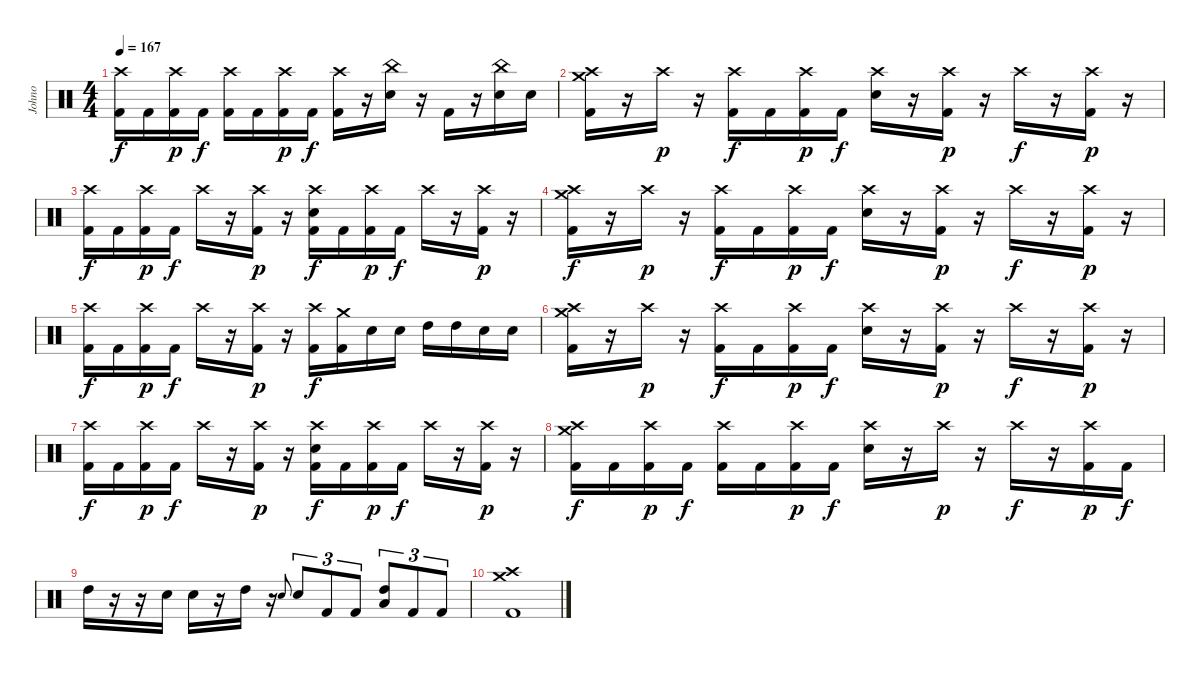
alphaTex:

\track ("Johno" "Johno") {instrument percussion}
\staff {score}
\articulation defaults
\ts (4 4)
\tempo 167
\clef neutral
\ks c
("Crash high (hit)" "Kick (hit) 2").16{dy f} "Kick (hit) 2".16 ("Crash high (hit)" "Kick (hit) 2").16{dy p} "Kick (hit) 2".16{dy f} ("Crash high (hit)" "Kick (hit) 2").16 "Kick (hit) 2".16 ("Crash high (hit)" "Kick (hit) 2").16{dy p} "Kick (hit) 2".16{dy f} ("Crash high (hit)" "Kick (hit) 2").16 r.16 ("China (hit)" "Electric Snare (hit)").16 r.16 "Kick (hit) 2".16 r.16 ("China (hit)" "Electric Snare (hit)").16 "Electric Snare (hit)".16 |
("Crash medium (hit)" "Crash high (hit)" "Kick (hit) 2").16 r.16 "Crash high (hit)".16{dy p} r.16 ("Crash high (hit)" "Kick (hit) 2").16{dy f} "Kick (hit) 2".16 ("Crash high (hit)" "Kick (hit) 2").16{dy p} "Kick (hit) 2".16{dy f} ("Crash high (hit)" "Electric Snare (hit)").16 r.16 ("Crash high (hit)" "Kick (hit) 2").16{dy p} r.16 "Crash high (hit)".16{dy f} r.16 ("Crash high (hit)" "Kick (hit) 2").16{dy p} r.16 |
("Crash high (hit)" "Kick (hit) 2").16{dy f} "Kick (hit) 2".16 ("Crash high (hit)" "Kick (hit) 2").16{dy p} "Kick (hit) 2".16{dy f} "Crash high (hit)".16 r.16 ("Crash high (hit)" "Kick (hit) 2").16{dy p} r.16 ("Crash high (hit)" "Electric Snare (hit)" "Kick (hit) 2").16{dy f} "Kick (hit) 2".16 ("Crash high (hit)" "Kick (hit) 2").16{dy p} "Kick (hit) 2".16{dy f} "Crash high (hit)".16 r.16 ("Crash high (hit)" "Kick (hit) 2").16{dy p} r.16 |
("Crash medium (hit)" "Crash high (hit)" "Kick (hit) 2").16{dy f} r.16 "Crash high (hit)".16{dy p} r.16 ("Crash high (hit)" "Kick (hit) 2").16{dy f} "Kick (hit) 2".16 ("Crash high (hit)" "Kick (hit) 2").16{dy p} "Kick (hit) 2".16{dy f} ("Crash high (hit)" "Electric Snare (hit)").16 r.16 ("Crash high (hit)" "Kick (hit) 2").16{dy p} r.16 "Crash high (hit)".16{dy f} r.16 ("Crash high (hit)" "Kick (hit) 2").16{dy p} r.16 |
("Crash high (hit)" "Kick (hit) 2").16{dy f} "Kick (hit) 2".16 ("Crash high (hit)" "Kick (hit) 2").16{dy p} "Kick (hit) 2".16{dy f} "Crash high (hit)".16 r.16 ("Crash high (hit)" "Kick (hit) 2").16{dy p} r.16 ("Crash high (hit)" "Kick (hit) 2").16{dy f} ("Crash medium (hit)" "Kick (hit) 2").16 "Electric Snare (hit)".16 "Electric Snare (hit)".16 "High Tom (hit)".16 "High Tom (hit)".16 "Electric Snare (hit)".16 "Electric Snare (hit)".16 |
("Crash medium (hit)" "Crash high (hit)" "Kick (hit) 2").16 r.16 "Crash high (hit)".16{dy p} r.16 ("Crash high (hit)" "Kick (hit) 2").16{dy f} "Kick (hit) 2".16 ("Crash high (hit)" "Kick (hit) 2").16{dy p} "Kick (hit) 2".16{dy f} ("Crash high (hit)" "Electric Snare (hit)").16 r.16 ("Crash high (hit)" "Kick (hit) 2").16{dy p} r.16 "Crash high (hit)".16{dy f} r.16 ("Crash high (hit)" "Kick (hit) 2").16{dy p} r.16 |
("Crash high (hit)" "Kick (hit) 2").16{dy f} "Kick (hit) 2".16 ("Crash high (hit)" "Kick (hit) 2").16{dy p} "Kick (hit) 2".16{dy f} "Crash high (hit)".16 r.16 ("Crash high (hit)" "Kick (hit) 2").16{dy p} r.16 ("Crash high (hit)" "Electric Snare (hit)" "Kick (hit) 2").16{dy f} "Kick (hit) 2".16 ("Crash high (hit)" "Kick (hit) 2").16{dy p} "Kick (hit) 2".16{dy f} "Crash high (hit)".16 r.16 ("Crash high (hit)" "Kick (hit) 2").16{dy p} r.16 |
("Crash medium (hit)" "Crash high (hit)" "Kick (hit) 2").16{dy f} "Kick (hit) 2".16 ("Crash high (hit)" "Kick (hit) 2").16{dy p} "Kick (hit) 2".16{dy f} ("Crash high (hit)" "Kick (hit) 2").16 "Kick (hit) 2".16 ("Crash high (hit)" "Kick (hit) 2").16{dy p} "Kick (hit) 2".16{dy f} ("Crash high (hit)" "Electric Snare (hit)").16 r.16 "Crash high (hit)".16{dy p} r.16 "Crash high (hit)".16{dy f} r.16 ("Crash high (hit)" "Kick (hit) 2").16{dy p} "Kick (hit) 2".16{dy f} |
"High Tom (hit)".16 r.16 r.16 "Electric Snare (hit)".16 "Electric Snare (hit)".16 r.16 "High Tom (hit)".16 r.16 "Electric Snare (hit)".8{gr onbeat} "Electric Snare (hit)".8{tu (3 2)} "Kick (hit) 2".8{tu (3 2)} "Kick (hit) 2".8{tu (3 2)} ("High Tom (hit)" "Low Floor Tom (hit)").8{tu (3 2)} "Kick (hit) 2".8{tu (3 2)} "Kick (hit) 2".8{tu (3 2)} |
("Crash medium (hit)" "Crash high (hit)" "Kick (hit) 2").1
